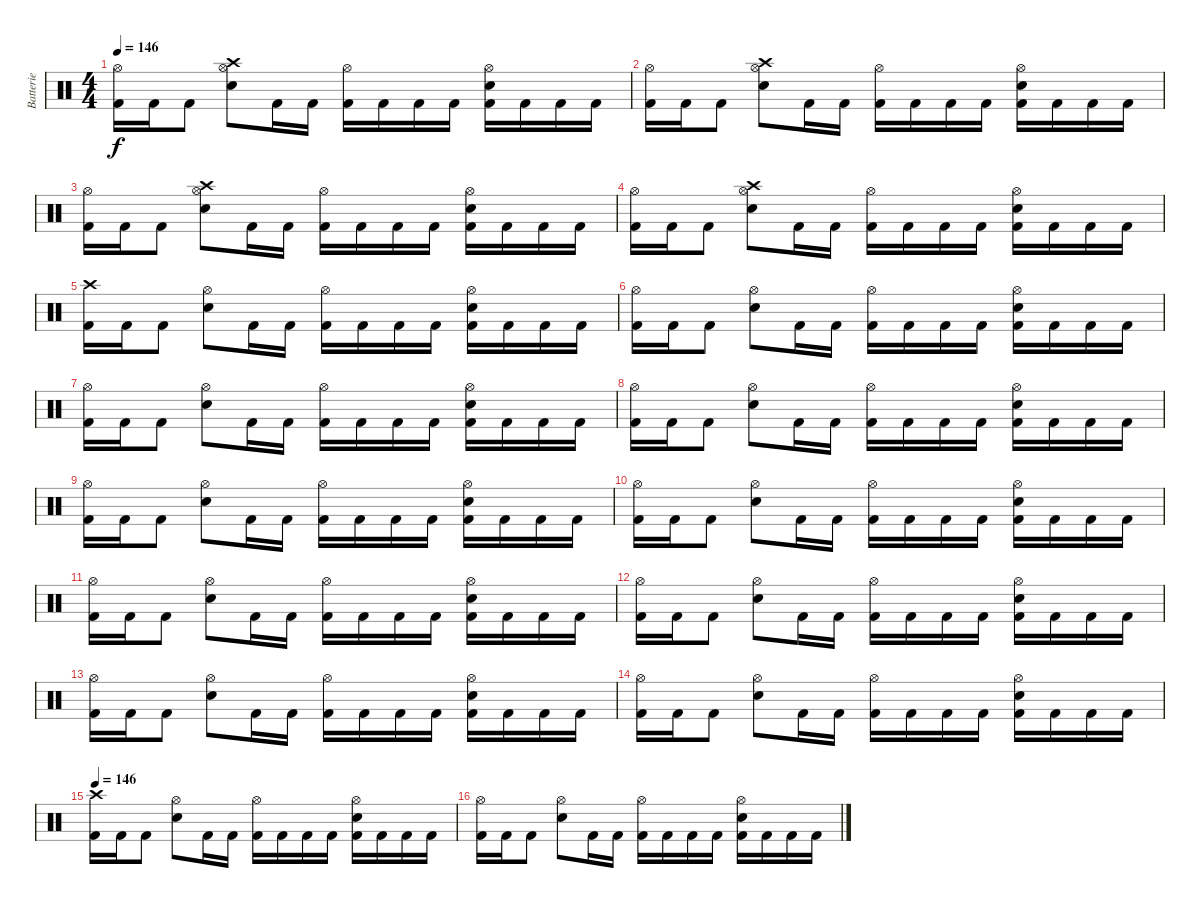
\track ("Batterie" "Batterie") {instrument percussion}
\staff {score}
\articulation defaults
\ts (4 4)
\tempo 146
\clef neutral
\ks c
("Hi-Hat (open)" "Kick (hit) 2").16{dy f} "Kick (hit) 2".16 "Kick (hit) 2".8 ("Crash high (hit)" "Hi-Hat (open)" "Electric Snare (hit)").8 "Kick (hit) 2".16 "Kick (hit) 2".16 ("Hi-Hat (open)" "Kick (hit) 2").16 "Kick (hit) 2".16 "Kick (hit) 2".16 "Kick (hit) 2".16 ("Electric Snare (hit)" "Hi-Hat (open)" "Kick (hit) 2").16 "Kick (hit) 2".16 "Kick (hit) 2".16 "Kick (hit) 2".16 |
("Hi-Hat (open)" "Kick (hit) 2").16 "Kick (hit) 2".16 "Kick (hit) 2".8 ("Crash high (hit)" "Hi-Hat (open)" "Electric Snare (hit)").8 "Kick (hit) 2".16 "Kick (hit) 2".16 ("Hi-Hat (open)" "Kick (hit) 2").16 "Kick (hit) 2".16 "Kick (hit) 2".16 "Kick (hit) 2".16 ("Electric Snare (hit)" "Hi-Hat (open)" "Kick (hit) 2").16 "Kick (hit) 2".16 "Kick (hit) 2".16 "Kick (hit) 2".16 |
("Hi-Hat (open)" "Kick (hit) 2").16 "Kick (hit) 2".16 "Kick (hit) 2".8 ("Crash high (hit)" "Hi-Hat (open)" "Electric Snare (hit)").8 "Kick (hit) 2".16 "Kick (hit) 2".16 ("Hi-Hat (open)" "Kick (hit) 2").16 "Kick (hit) 2".16 "Kick (hit) 2".16 "Kick (hit) 2".16 ("Electric Snare (hit)" "Hi-Hat (open)" "Kick (hit) 2").16 "Kick (hit) 2".16 "Kick (hit) 2".16 "Kick (hit) 2".16 |
("Hi-Hat (open)" "Kick (hit) 2").16 "Kick (hit) 2".16 "Kick (hit) 2".8 ("Crash high (hit)" "Hi-Hat (open)" "Electric Snare (hit)").8 "Kick (hit) 2".16 "Kick (hit) 2".16 ("Hi-Hat (open)" "Kick (hit) 2").16 "Kick (hit) 2".16 "Kick (hit) 2".16 "Kick (hit) 2".16 ("Electric Snare (hit)" "Hi-Hat (open)" "Kick (hit) 2").16 "Kick (hit) 2".16 "Kick (hit) 2".16 "Kick (hit) 2".16 |
("Crash high (hit)" "Kick (hit) 2").16 "Kick (hit) 2".16 "Kick (hit) 2".8 ("Hi-Hat (open)" "Electric Snare (hit)").8 "Kick (hit) 2".16 "Kick (hit) 2".16 ("Hi-Hat (open)" "Kick (hit) 2").16 "Kick (hit) 2".16 "Kick (hit) 2".16 "Kick (hit) 2".16 ("Electric Snare (hit)" "Hi-Hat (open)" "Kick (hit) 2").16 "Kick (hit) 2".16 "Kick (hit) 2".16 "Kick (hit) 2".16 |
("Hi-Hat (open)" "Kick (hit) 2").16 "Kick (hit) 2".16 "Kick (hit) 2".8 ("Hi-Hat (open)" "Electric Snare (hit)").8 "Kick (hit) 2".16 "Kick (hit) 2".16 ("Hi-Hat (open)" "Kick (hit) 2").16 "Kick (hit) 2".16 "Kick (hit) 2".16 "Kick (hit) 2".16 ("Electric Snare (hit)" "Hi-Hat (open)" "Kick (hit) 2").16 "Kick (hit) 2".16 "Kick (hit) 2".16 "Kick (hit) 2".16 |
("Hi-Hat (open)" "Kick (hit) 2").16 "Kick (hit) 2".16 "Kick (hit) 2".8 ("Hi-Hat (open)" "Electric Snare (hit)").8 "Kick (hit) 2".16 "Kick (hit) 2".16 ("Hi-Hat (open)" "Kick (hit) 2").16 "Kick (hit) 2".16 "Kick (hit) 2".16 "Kick (hit) 2".16 ("Electric Snare (hit)" "Hi-Hat (open)" "Kick (hit) 2").16 "Kick (hit) 2".16 "Kick (hit) 2".16 "Kick (hit) 2".16 |
("Hi-Hat (open)" "Kick (hit) 2").16 "Kick (hit) 2".16 "Kick (hit) 2".8 ("Hi-Hat (open)" "Electric Snare (hit)").8 "Kick (hit) 2".16 "Kick (hit) 2".16 ("Hi-Hat (open)" "Kick (hit) 2").16 "Kick (hit) 2".16 "Kick (hit) 2".16 "Kick (hit) 2".16 ("Electric Snare (hit)" "Hi-Hat (open)" "Kick (hit) 2").16 "Kick (hit) 2".16 "Kick (hit) 2".16 "Kick (hit) 2".16 |
("Hi-Hat (open)" "Kick (hit) 2").16 "Kick (hit) 2".16 "Kick (hit) 2".8 ("Hi-Hat (open)" "Electric Snare (hit)").8 "Kick (hit) 2".16 "Kick (hit) 2".16 ("Hi-Hat (open)" "Kick (hit) 2").16 "Kick (hit) 2".16 "Kick (hit) 2".16 "Kick (hit) 2".16 ("Electric Snare (hit)" "Hi-Hat (open)" "Kick (hit) 2").16 "Kick (hit) 2".16 "Kick (hit) 2".16 "Kick (hit) 2".16 |
("Hi-Hat (open)" "Kick (hit) 2").16 "Kick (hit) 2".16 "Kick (hit) 2".8 ("Hi-Hat (open)" "Electric Snare (hit)").8 "Kick (hit) 2".16 "Kick (hit) 2".16 ("Hi-Hat (open)" "Kick (hit) 2").16 "Kick (hit) 2".16 "Kick (hit) 2".16 "Kick (hit) 2".16 ("Electric Snare (hit)" "Hi-Hat (open)" "Kick (hit) 2").16 "Kick (hit) 2".16 "Kick (hit) 2".16 "Kick (hit) 2".16 |
("Hi-Hat (open)" "Kick (hit) 2").16 "Kick (hit) 2".16 "Kick (hit) 2".8 ("Hi-Hat (open)" "Electric Snare (hit)").8 "Kick (hit) 2".16 "Kick (hit) 2".16 ("Hi-Hat (open)" "Kick (hit) 2").16 "Kick (hit) 2".16 "Kick (hit) 2".16 "Kick (hit) 2".16 ("Electric Snare (hit)" "Hi-Hat (open)" "Kick (hit) 2").16 "Kick (hit) 2".16 "Kick (hit) 2".16 "Kick (hit) 2".16 |
("Hi-Hat (open)" "Kick (hit) 2").16 "Kick (hit) 2".16 "Kick (hit) 2".8 ("Hi-Hat (open)" "Electric Snare (hit)").8 "Kick (hit) 2".16 "Kick (hit) 2".16 ("Hi-Hat (open)" "Kick (hit) 2").16 "Kick (hit) 2".16 "Kick (hit) 2".16 "Kick (hit) 2".16 ("Electric Snare (hit)" "Hi-Hat (open)" "Kick (hit) 2").16 "Kick (hit) 2".16 "Kick (hit) 2".16 "Kick (hit) 2".16 |
("Hi-Hat (open)" "Kick (hit) 2").16 "Kick (hit) 2".16 "Kick (hit) 2".8 ("Hi-Hat (open)" "Electric Snare (hit)").8 "Kick (hit) 2".16 "Kick (hit) 2".16 ("Hi-Hat (open)" "Kick (hit) 2").16 "Kick (hit) 2".16 "Kick (hit) 2".16 "Kick (hit) 2".16 ("Electric Snare (hit)" "Hi-Hat (open)" "Kick (hit) 2").16 "Kick (hit) 2".16 "Kick (hit) 2".16 "Kick (hit) 2".16 |
("Hi-Hat (open)" "Kick (hit) 2").16 "Kick (hit) 2".16 "Kick (hit) 2".8 ("Hi-Hat (open)" "Electric Snare (hit)").8 "Kick (hit) 2".16 "Kick (hit) 2".16 ("Hi-Hat (open)" "Kick (hit) 2").16 "Kick (hit) 2".16 "Kick (hit) 2".16 "Kick (hit) 2".16 ("Electric Snare (hit)" "Hi-Hat (open)" "Kick (hit) 2").16 "Kick (hit) 2".16 "Kick (hit) 2".16 "Kick (hit) 2".16 |
\tempo 146
("Crash high (hit)" "Kick (hit) 2").16 "Kick (hit) 2".16 "Kick (hit) 2".8 ("Hi-Hat (open)" "Electric Snare (hit)").8 "Kick (hit) 2".16 "Kick (hit) 2".16 ("Hi-Hat (open)" "Kick (hit) 2").16 "Kick (hit) 2".16 "Kick (hit) 2".16 "Kick (hit) 2".16 ("Electric Snare (hit)" "Hi-Hat (open)" "Kick (hit) 2").16 "Kick (hit) 2".16 "Kick (hit) 2".16 "Kick (hit) 2".16 |
("Hi-Hat (open)" "Kick (hit) 2").16 "Kick (hit) 2".16 "Kick (hit) 2".8 ("Hi-Hat (open)" "Electric Snare (hit)").8 "Kick (hit) 2".16 "Kick (hit) 2".16 ("Hi-Hat (open)" "Kick (hit) 2").16 "Kick (hit) 2".16 "Kick (hit) 2".16 "Kick (hit) 2".16 ("Electric Snare (hit)" "Hi-Hat (open)" "Kick (hit) 2").16 "Kick (hit) 2".16 "Kick (hit) 2".16 "Kick (hit) 2".16
